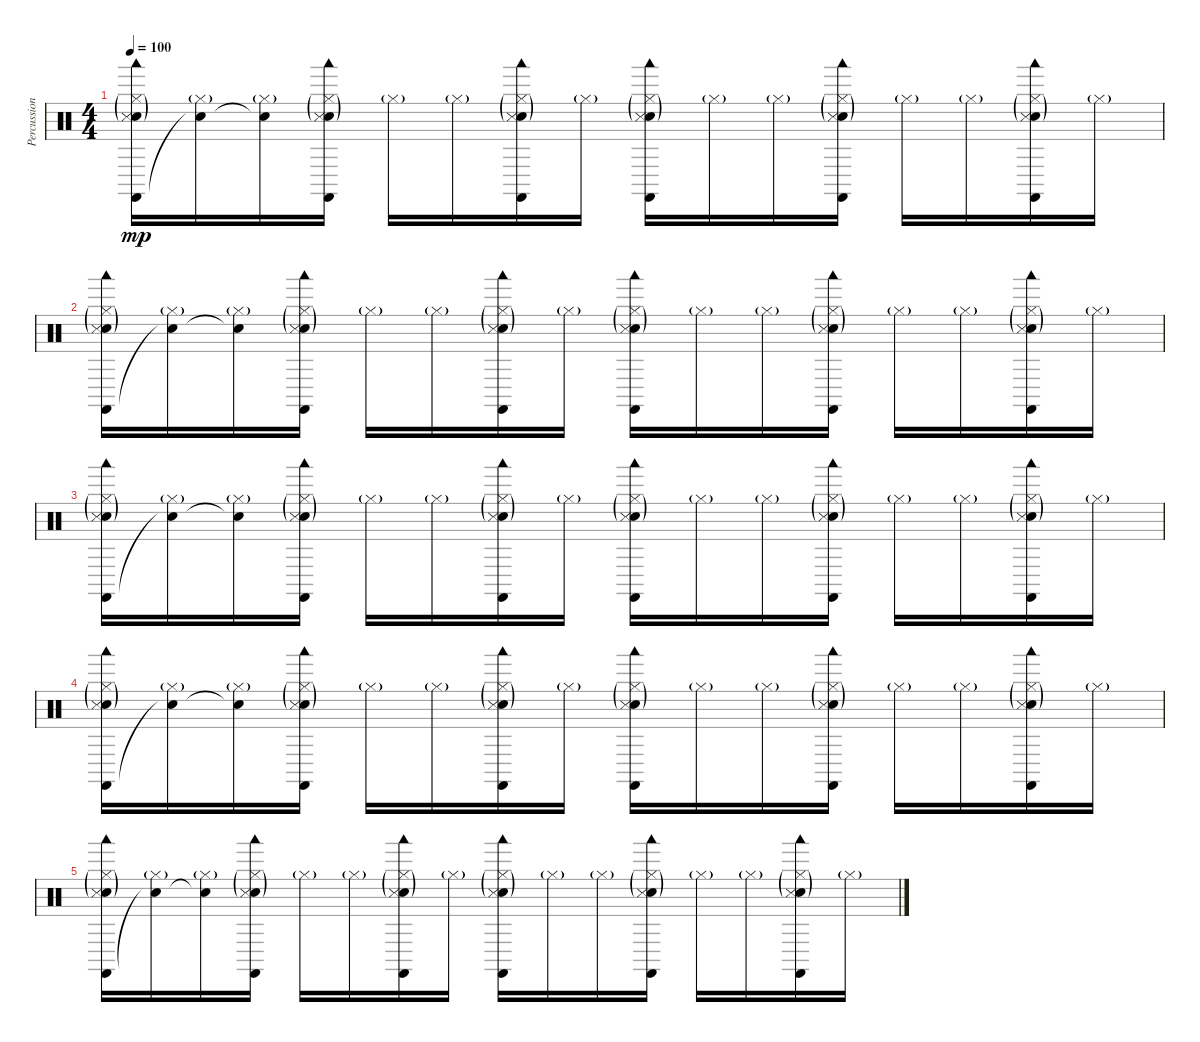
\track ("Percussion" "Percussion") {instrument percussion}
\staff {score}
\articulation defaults
\ts (4 4)
\tempo 100
\clef neutral
\ks c
("Hi-Hat (closed)"{g} "Castanets (hit)" "Woodblock low (hit)" "Electric Snare (hit)"{g} "Metronome (hit)"{g}).16{dy mp} ("Hi-Hat (closed)"{g} "Snare (hit)"{t}).16 ("Hi-Hat (closed)"{g} "Snare (hit)"{t}).16 ("Hi-Hat (closed)"{g} "Castanets (hit)" "Woodblock low (hit)" "Electric Snare (hit)"{g} "Metronome (hit)"{g}).16 "Hi-Hat (closed)"{g}.16 "Hi-Hat (closed)"{g}.16 ("Hi-Hat (closed)"{g} "Castanets (hit)" "Woodblock low (hit)" "Electric Snare (hit)"{g} "Metronome (hit)"{g}).16 "Hi-Hat (closed)"{g}.16 ("Hi-Hat (closed)"{g} "Castanets (hit)" "Woodblock low (hit)" "Electric Snare (hit)"{g} "Metronome (hit)"{g}).16 "Hi-Hat (closed)"{g}.16 "Hi-Hat (closed)"{g}.16 ("Hi-Hat (closed)"{g} "Castanets (hit)" "Woodblock low (hit)" "Electric Snare (hit)"{g} "Metronome (hit)"{g}).16 "Hi-Hat (closed)"{g}.16 "Hi-Hat (closed)"{g}.16 ("Hi-Hat (closed)"{g} "Castanets (hit)" "Woodblock low (hit)" "Electric Snare (hit)"{g} "Metronome (hit)"{g}).16 "Hi-Hat (closed)"{g}.16 |
("Hi-Hat (closed)"{g} "Castanets (hit)" "Woodblock low (hit)" "Electric Snare (hit)"{g} "Metronome (hit)"{g}).16 ("Hi-Hat (closed)"{g} "Snare (hit)"{t}).16 ("Hi-Hat (closed)"{g} "Snare (hit)"{t}).16 ("Hi-Hat (closed)"{g} "Castanets (hit)" "Woodblock low (hit)" "Electric Snare (hit)"{g} "Metronome (hit)"{g}).16 "Hi-Hat (closed)"{g}.16 "Hi-Hat (closed)"{g}.16 ("Hi-Hat (closed)"{g} "Castanets (hit)" "Woodblock low (hit)" "Electric Snare (hit)"{g} "Metronome (hit)"{g}).16 "Hi-Hat (closed)"{g}.16 ("Hi-Hat (closed)"{g} "Castanets (hit)" "Woodblock low (hit)" "Electric Snare (hit)"{g} "Metronome (hit)"{g}).16 "Hi-Hat (closed)"{g}.16 "Hi-Hat (closed)"{g}.16 ("Hi-Hat (closed)"{g} "Castanets (hit)" "Woodblock low (hit)" "Electric Snare (hit)"{g} "Metronome (hit)"{g}).16 "Hi-Hat (closed)"{g}.16 "Hi-Hat (closed)"{g}.16 ("Hi-Hat (closed)"{g} "Castanets (hit)" "Woodblock low (hit)" "Electric Snare (hit)"{g} "Metronome (hit)"{g}).16 "Hi-Hat (closed)"{g}.16 |
("Hi-Hat (closed)"{g} "Castanets (hit)" "Woodblock low (hit)" "Electric Snare (hit)"{g} "Metronome (hit)"{g}).16 ("Hi-Hat (closed)"{g} "Snare (hit)"{t}).16 ("Hi-Hat (closed)"{g} "Snare (hit)"{t}).16 ("Hi-Hat (closed)"{g} "Castanets (hit)" "Woodblock low (hit)" "Electric Snare (hit)"{g} "Metronome (hit)"{g}).16 "Hi-Hat (closed)"{g}.16 "Hi-Hat (closed)"{g}.16 ("Hi-Hat (closed)"{g} "Castanets (hit)" "Woodblock low (hit)" "Electric Snare (hit)"{g} "Metronome (hit)"{g}).16 "Hi-Hat (closed)"{g}.16 ("Hi-Hat (closed)"{g} "Castanets (hit)" "Woodblock low (hit)" "Electric Snare (hit)"{g} "Metronome (hit)"{g}).16 "Hi-Hat (closed)"{g}.16 "Hi-Hat (closed)"{g}.16 ("Hi-Hat (closed)"{g} "Castanets (hit)" "Woodblock low (hit)" "Electric Snare (hit)"{g} "Metronome (hit)"{g}).16 "Hi-Hat (closed)"{g}.16 "Hi-Hat (closed)"{g}.16 ("Hi-Hat (closed)"{g} "Castanets (hit)" "Woodblock low (hit)" "Electric Snare (hit)"{g} "Metronome (hit)"{g}).16 "Hi-Hat (closed)"{g}.16 |
("Hi-Hat (closed)"{g} "Castanets (hit)" "Woodblock low (hit)" "Electric Snare (hit)"{g} "Metronome (hit)"{g}).16 ("Hi-Hat (closed)"{g} "Snare (hit)"{t}).16 ("Hi-Hat (closed)"{g} "Snare (hit)"{t}).16 ("Hi-Hat (closed)"{g} "Castanets (hit)" "Woodblock low (hit)" "Electric Snare (hit)"{g} "Metronome (hit)"{g}).16 "Hi-Hat (closed)"{g}.16 "Hi-Hat (closed)"{g}.16 ("Hi-Hat (closed)"{g} "Castanets (hit)" "Woodblock low (hit)" "Electric Snare (hit)"{g} "Metronome (hit)"{g}).16 "Hi-Hat (closed)"{g}.16 ("Hi-Hat (closed)"{g} "Castanets (hit)" "Woodblock low (hit)" "Electric Snare (hit)"{g} "Metronome (hit)"{g}).16 "Hi-Hat (closed)"{g}.16 "Hi-Hat (closed)"{g}.16 ("Hi-Hat (closed)"{g} "Castanets (hit)" "Woodblock low (hit)" "Electric Snare (hit)"{g} "Metronome (hit)"{g}).16 "Hi-Hat (closed)"{g}.16 "Hi-Hat (closed)"{g}.16 ("Hi-Hat (closed)"{g} "Castanets (hit)" "Woodblock low (hit)" "Electric Snare (hit)"{g} "Metronome (hit)"{g}).16 "Hi-Hat (closed)"{g}.16 |
("Hi-Hat (closed)"{g} "Castanets (hit)" "Woodblock low (hit)" "Electric Snare (hit)"{g} "Metronome (hit)"{g}).16 ("Hi-Hat (closed)"{g} "Snare (hit)"{t}).16 ("Hi-Hat (closed)"{g} "Snare (hit)"{t}).16 ("Hi-Hat (closed)"{g} "Castanets (hit)" "Woodblock low (hit)" "Electric Snare (hit)"{g} "Metronome (hit)"{g}).16 "Hi-Hat (closed)"{g}.16 "Hi-Hat (closed)"{g}.16 ("Hi-Hat (closed)"{g} "Castanets (hit)" "Woodblock low (hit)" "Electric Snare (hit)"{g} "Metronome (hit)"{g}).16 "Hi-Hat (closed)"{g}.16 ("Hi-Hat (closed)"{g} "Castanets (hit)" "Woodblock low (hit)" "Electric Snare (hit)"{g} "Metronome (hit)"{g}).16 "Hi-Hat (closed)"{g}.16 "Hi-Hat (closed)"{g}.16 ("Hi-Hat (closed)"{g} "Castanets (hit)" "Woodblock low (hit)" "Electric Snare (hit)"{g} "Metronome (hit)"{g}).16 "Hi-Hat (closed)"{g}.16 "Hi-Hat (closed)"{g}.16 ("Hi-Hat (closed)"{g} "Castanets (hit)" "Woodblock low (hit)" "Electric Snare (hit)"{g} "Metronome (hit)"{g}).16 "Hi-Hat (closed)"{g}.16
